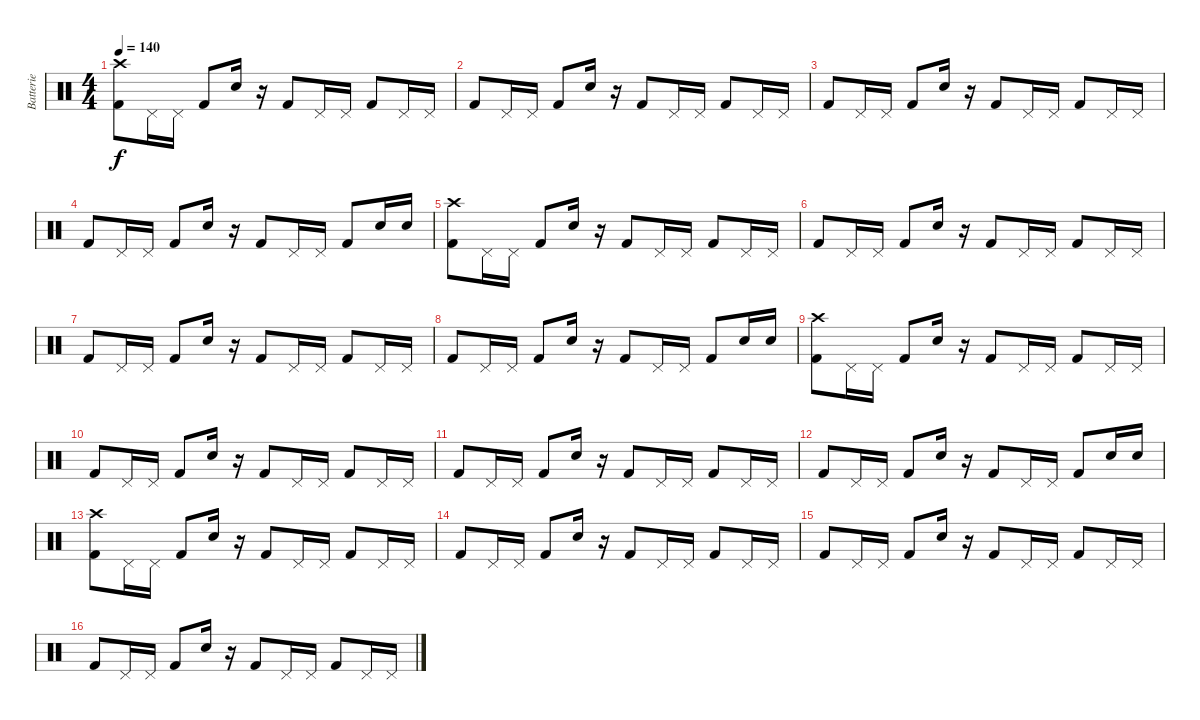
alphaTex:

\track ("Batterie" "Batterie") {instrument percussion}
\staff {score}
\articulation defaults
\ts (4 4)
\tempo 140
\clef neutral
\ks c
("Crash high (hit)" "Kick (hit) 2").8{dy f} "Pedal Hi-Hat (hit)".16 "Pedal Hi-Hat (hit)".16 "Kick (hit) 2".8 "Electric Snare (hit)".16 r.16 "Kick (hit) 2".8 "Pedal Hi-Hat (hit)".16 "Pedal Hi-Hat (hit)".16 "Kick (hit) 2".8 "Pedal Hi-Hat (hit)".16 "Pedal Hi-Hat (hit)".16 |
"Kick (hit) 2".8 "Pedal Hi-Hat (hit)".16 "Pedal Hi-Hat (hit)".16 "Kick (hit) 2".8 "Electric Snare (hit)".16 r.16 "Kick (hit) 2".8 "Pedal Hi-Hat (hit)".16 "Pedal Hi-Hat (hit)".16 "Kick (hit) 2".8 "Pedal Hi-Hat (hit)".16 "Pedal Hi-Hat (hit)".16 |
"Kick (hit) 2".8 "Pedal Hi-Hat (hit)".16 "Pedal Hi-Hat (hit)".16 "Kick (hit) 2".8 "Electric Snare (hit)".16 r.16 "Kick (hit) 2".8 "Pedal Hi-Hat (hit)".16 "Pedal Hi-Hat (hit)".16 "Kick (hit) 2".8 "Pedal Hi-Hat (hit)".16 "Pedal Hi-Hat (hit)".16 |
"Kick (hit) 2".8 "Pedal Hi-Hat (hit)".16 "Pedal Hi-Hat (hit)".16 "Kick (hit) 2".8 "Electric Snare (hit)".16 r.16 "Kick (hit) 2".8 "Pedal Hi-Hat (hit)".16 "Pedal Hi-Hat (hit)".16 "Kick (hit) 2".8 "Electric Snare (hit)".16 "Electric Snare (hit)".16 |
("Crash high (hit)" "Kick (hit) 2").8 "Pedal Hi-Hat (hit)".16 "Pedal Hi-Hat (hit)".16 "Kick (hit) 2".8 "Electric Snare (hit)".16 r.16 "Kick (hit) 2".8 "Pedal Hi-Hat (hit)".16 "Pedal Hi-Hat (hit)".16 "Kick (hit) 2".8 "Pedal Hi-Hat (hit)".16 "Pedal Hi-Hat (hit)".16 |
"Kick (hit) 2".8 "Pedal Hi-Hat (hit)".16 "Pedal Hi-Hat (hit)".16 "Kick (hit) 2".8 "Electric Snare (hit)".16 r.16 "Kick (hit) 2".8 "Pedal Hi-Hat (hit)".16 "Pedal Hi-Hat (hit)".16 "Kick (hit) 2".8 "Pedal Hi-Hat (hit)".16 "Pedal Hi-Hat (hit)".16 |
"Kick (hit) 2".8 "Pedal Hi-Hat (hit)".16 "Pedal Hi-Hat (hit)".16 "Kick (hit) 2".8 "Electric Snare (hit)".16 r.16 "Kick (hit) 2".8 "Pedal Hi-Hat (hit)".16 "Pedal Hi-Hat (hit)".16 "Kick (hit) 2".8 "Pedal Hi-Hat (hit)".16 "Pedal Hi-Hat (hit)".16 |
"Kick (hit) 2".8 "Pedal Hi-Hat (hit)".16 "Pedal Hi-Hat (hit)".16 "Kick (hit) 2".8 "Electric Snare (hit)".16 r.16 "Kick (hit) 2".8 "Pedal Hi-Hat (hit)".16 "Pedal Hi-Hat (hit)".16 "Kick (hit) 2".8 "Electric Snare (hit)".16 "Electric Snare (hit)".16 |
("Crash high (hit)" "Kick (hit) 2").8 "Pedal Hi-Hat (hit)".16 "Pedal Hi-Hat (hit)".16 "Kick (hit) 2".8 "Electric Snare (hit)".16 r.16 "Kick (hit) 2".8 "Pedal Hi-Hat (hit)".16 "Pedal Hi-Hat (hit)".16 "Kick (hit) 2".8 "Pedal Hi-Hat (hit)".16 "Pedal Hi-Hat (hit)".16 |
"Kick (hit) 2".8 "Pedal Hi-Hat (hit)".16 "Pedal Hi-Hat (hit)".16 "Kick (hit) 2".8 "Electric Snare (hit)".16 r.16 "Kick (hit) 2".8 "Pedal Hi-Hat (hit)".16 "Pedal Hi-Hat (hit)".16 "Kick (hit) 2".8 "Pedal Hi-Hat (hit)".16 "Pedal Hi-Hat (hit)".16 |
"Kick (hit) 2".8 "Pedal Hi-Hat (hit)".16 "Pedal Hi-Hat (hit)".16 "Kick (hit) 2".8 "Electric Snare (hit)".16 r.16 "Kick (hit) 2".8 "Pedal Hi-Hat (hit)".16 "Pedal Hi-Hat (hit)".16 "Kick (hit) 2".8 "Pedal Hi-Hat (hit)".16 "Pedal Hi-Hat (hit)".16 |
"Kick (hit) 2".8 "Pedal Hi-Hat (hit)".16 "Pedal Hi-Hat (hit)".16 "Kick (hit) 2".8 "Electric Snare (hit)".16 r.16 "Kick (hit) 2".8 "Pedal Hi-Hat (hit)".16 "Pedal Hi-Hat (hit)".16 "Kick (hit) 2".8 "Electric Snare (hit)".16 "Electric Snare (hit)".16 |
("Crash high (hit)" "Kick (hit) 2").8 "Pedal Hi-Hat (hit)".16 "Pedal Hi-Hat (hit)".16 "Kick (hit) 2".8 "Electric Snare (hit)".16 r.16 "Kick (hit) 2".8 "Pedal Hi-Hat (hit)".16 "Pedal Hi-Hat (hit)".16 "Kick (hit) 2".8 "Pedal Hi-Hat (hit)".16 "Pedal Hi-Hat (hit)".16 |
"Kick (hit) 2".8 "Pedal Hi-Hat (hit)".16 "Pedal Hi-Hat (hit)".16 "Kick (hit) 2".8 "Electric Snare (hit)".16 r.16 "Kick (hit) 2".8 "Pedal Hi-Hat (hit)".16 "Pedal Hi-Hat (hit)".16 "Kick (hit) 2".8 "Pedal Hi-Hat (hit)".16 "Pedal Hi-Hat (hit)".16 |
"Kick (hit) 2".8 "Pedal Hi-Hat (hit)".16 "Pedal Hi-Hat (hit)".16 "Kick (hit) 2".8 "Electric Snare (hit)".16 r.16 "Kick (hit) 2".8 "Pedal Hi-Hat (hit)".16 "Pedal Hi-Hat (hit)".16 "Kick (hit) 2".8 "Pedal Hi-Hat (hit)".16 "Pedal Hi-Hat (hit)".16 |
"Kick (hit) 2".8 "Pedal Hi-Hat (hit)".16 "Pedal Hi-Hat (hit)".16 "Kick (hit) 2".8 "Electric Snare (hit)".16 r.16 "Kick (hit) 2".8 "Pedal Hi-Hat (hit)".16 "Pedal Hi-Hat (hit)".16 "Kick (hit) 2".8 "Pedal Hi-Hat (hit)".16 "Pedal Hi-Hat (hit)".16
